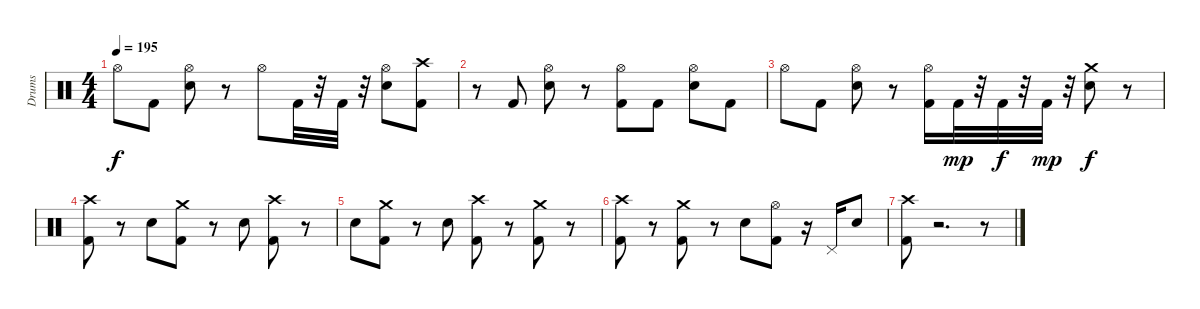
\track ("Drums" "Drums") {instrument percussion}
\staff {score}
\articulation defaults
\ts (4 4)
\tempo 195
\clef neutral
\ks c "Hi-Hat (open)".8{dy f} "Kick (hit) 2".8
("Electric Snare (hit)" "Hi-Hat (open)").8 r.8 "Hi-Hat (open)".8 "Kick (hit) 2".32 r.32 "Kick (hit) 2".32 r.32 ("Electric Snare (hit)" "Hi-Hat (open)").8 ("Kick (hit) 2" "Crash high (hit)").8 |
r.8 "Kick (hit) 2".8 ("Electric Snare (hit)" "Hi-Hat (open)").8 r.8 ("Hi-Hat (open)" "Kick (hit) 2").8 "Kick (hit) 2".8 ("Electric Snare (hit)" "Hi-Hat (open)").8 "Kick (hit) 2".8 |
"Hi-Hat (open)".8 "Kick (hit) 2".8 ("Electric Snare (hit)" "Hi-Hat (open)").8 r.8 ("Kick (hit) 2" "Hi-Hat (open)").16 "Kick (hit) 2".32{dy mp} r.32 "Kick (hit) 2".32{dy f} r.32 "Kick (hit) 2".32{dy mp} r.32 ("Electric Snare (hit)" "Crash medium (hit)").8{dy f} r.8 |
("Kick (hit) 2" "Crash high (hit)").8 r.8 "Electric Snare (hit)".8 ("Kick (hit) 2" "Crash medium (hit)").8 r.8 "Electric Snare (hit)".8 ("Kick (hit) 2" "Crash high (hit)").8 r.8 |
"Electric Snare (hit)".8 ("Kick (hit) 2" "Crash medium (hit)").8 r.8 "Electric Snare (hit)".8 ("Kick (hit) 2" "Crash high (hit)").8 r.8 ("Crash medium (hit)" "Kick (hit) 2").8 r.8 |
("Kick (hit) 2" "Crash high (hit)").8 r.8 ("Crash medium (hit)" "Kick (hit) 2").8 r.8 "Electric Snare (hit)".8 ("Kick (hit) 2" "Hi-Hat (open)").8 r.16 "Pedal Hi-Hat (hit)".16 "Electric Snare (hit)".8 |
("Kick (hit) 2" "Crash high (hit)").8 r.2{d} r.8
